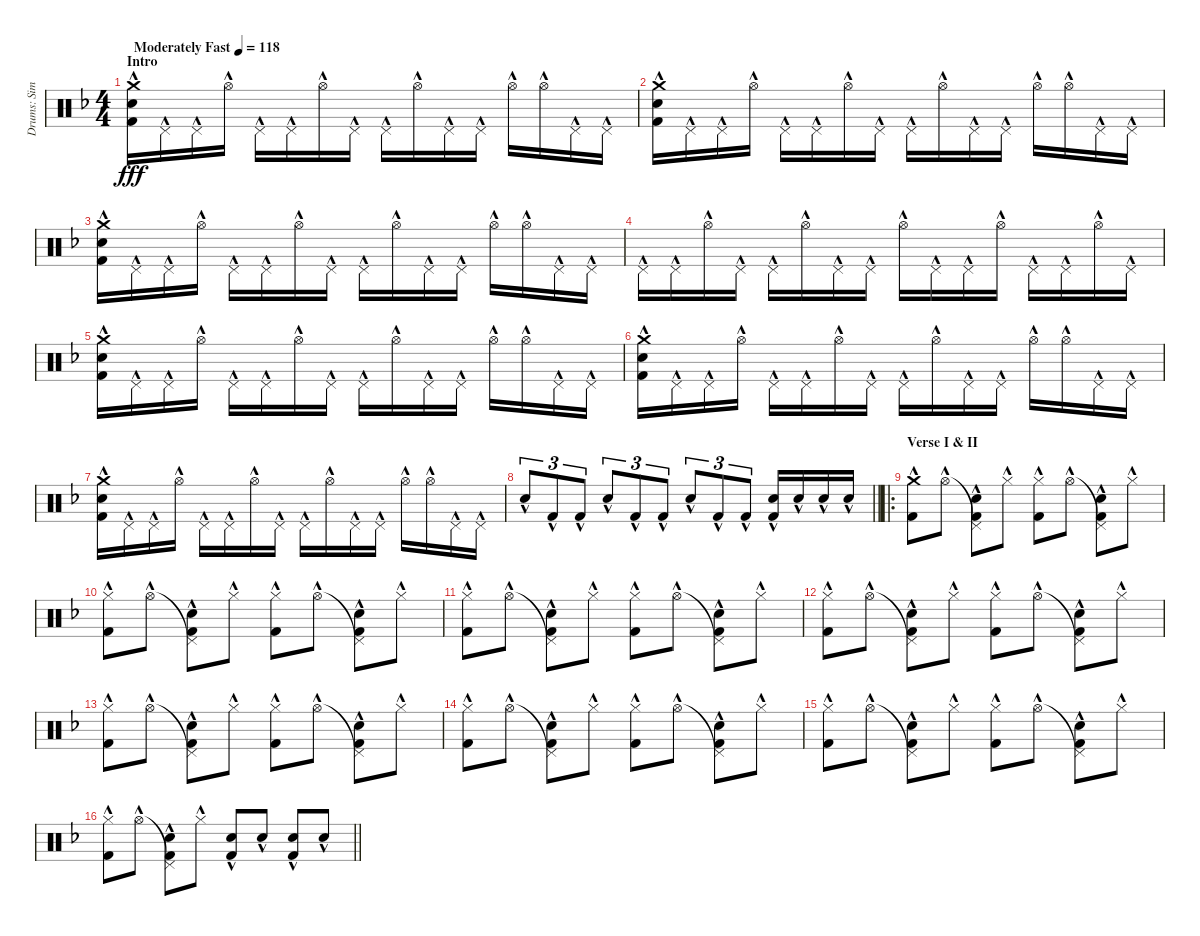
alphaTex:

\track ("Drums: Simon" "Drums: Sim") {instrument percussion}
\staff {score}
\articulation defaults
\ts (4 4)
\section ("" "Intro")
\tempo (118 "Moderately Fast")
\clef neutral
\ks f
("Crash medium (hit)"{hac} "Snare (hit) 2"{hac} "Kick (hit) 2"{hac}).16{dy fff} "Pedal Hi-Hat (hit)"{hac}.16 "Pedal Hi-Hat (hit)"{hac}.16 "Hi-Hat (open)"{hac}.16 "Pedal Hi-Hat (hit)"{hac}.16 "Pedal Hi-Hat (hit)"{hac}.16 "Hi-Hat (open)"{hac}.16 "Pedal Hi-Hat (hit)"{hac}.16 "Pedal Hi-Hat (hit)"{hac}.16 "Hi-Hat (open)"{hac}.16 "Pedal Hi-Hat (hit)"{hac}.16 "Pedal Hi-Hat (hit)"{hac}.16 "Hi-Hat (open)"{hac}.16 "Hi-Hat (open)"{hac}.16 "Pedal Hi-Hat (hit)"{hac}.16 "Pedal Hi-Hat (hit)"{hac}.16 |
("Crash medium (hit)"{hac} "Snare (hit) 2"{hac} "Kick (hit) 2"{hac}).16 "Pedal Hi-Hat (hit)"{hac}.16 "Pedal Hi-Hat (hit)"{hac}.16 "Hi-Hat (open)"{hac}.16 "Pedal Hi-Hat (hit)"{hac}.16 "Pedal Hi-Hat (hit)"{hac}.16 "Hi-Hat (open)"{hac}.16 "Pedal Hi-Hat (hit)"{hac}.16 "Pedal Hi-Hat (hit)"{hac}.16 "Hi-Hat (open)"{hac}.16 "Pedal Hi-Hat (hit)"{hac}.16 "Pedal Hi-Hat (hit)"{hac}.16 "Hi-Hat (open)"{hac}.16 "Hi-Hat (open)"{hac}.16 "Pedal Hi-Hat (hit)"{hac}.16 "Pedal Hi-Hat (hit)"{hac}.16 |
("Crash medium (hit)"{hac} "Snare (hit) 2"{hac} "Kick (hit) 2"{hac}).16 "Pedal Hi-Hat (hit)"{hac}.16 "Pedal Hi-Hat (hit)"{hac}.16 "Hi-Hat (open)"{hac}.16 "Pedal Hi-Hat (hit)"{hac}.16 "Pedal Hi-Hat (hit)"{hac}.16 "Hi-Hat (open)"{hac}.16 "Pedal Hi-Hat (hit)"{hac}.16 "Pedal Hi-Hat (hit)"{hac}.16 "Hi-Hat (open)"{hac}.16 "Pedal Hi-Hat (hit)"{hac}.16 "Pedal Hi-Hat (hit)"{hac}.16 "Hi-Hat (open)"{hac}.16 "Hi-Hat (open)"{hac}.16 "Pedal Hi-Hat (hit)"{hac}.16 "Pedal Hi-Hat (hit)"{hac}.16 |
"Pedal Hi-Hat (hit)"{hac}.16 "Pedal Hi-Hat (hit)"{hac}.16 "Hi-Hat (open)"{hac}.16 "Pedal Hi-Hat (hit)"{hac}.16 "Pedal Hi-Hat (hit)"{hac}.16 "Hi-Hat (open)"{hac}.16 "Pedal Hi-Hat (hit)"{hac}.16 "Pedal Hi-Hat (hit)"{hac}.16 "Hi-Hat (open)"{hac}.16 "Pedal Hi-Hat (hit)"{hac}.16 "Pedal Hi-Hat (hit)"{hac}.16 "Hi-Hat (open)"{hac}.16 "Pedal Hi-Hat (hit)"{hac}.16 "Pedal Hi-Hat (hit)"{hac}.16 "Hi-Hat (open)"{hac}.16 "Pedal Hi-Hat (hit)"{hac}.16 |
("Crash medium (hit)"{hac} "Snare (hit) 2"{hac} "Kick (hit) 2"{hac}).16 "Pedal Hi-Hat (hit)"{hac}.16 "Pedal Hi-Hat (hit)"{hac}.16 "Hi-Hat (open)"{hac}.16 "Pedal Hi-Hat (hit)"{hac}.16 "Pedal Hi-Hat (hit)"{hac}.16 "Hi-Hat (open)"{hac}.16 "Pedal Hi-Hat (hit)"{hac}.16 "Pedal Hi-Hat (hit)"{hac}.16 "Hi-Hat (open)"{hac}.16 "Pedal Hi-Hat (hit)"{hac}.16 "Pedal Hi-Hat (hit)"{hac}.16 "Hi-Hat (open)"{hac}.16 "Hi-Hat (open)"{hac}.16 "Pedal Hi-Hat (hit)"{hac}.16 "Pedal Hi-Hat (hit)"{hac}.16 |
("Crash medium (hit)"{hac} "Snare (hit) 2"{hac} "Kick (hit) 2"{hac}).16 "Pedal Hi-Hat (hit)"{hac}.16 "Pedal Hi-Hat (hit)"{hac}.16 "Hi-Hat (open)"{hac}.16 "Pedal Hi-Hat (hit)"{hac}.16 "Pedal Hi-Hat (hit)"{hac}.16 "Hi-Hat (open)"{hac}.16 "Pedal Hi-Hat (hit)"{hac}.16 "Pedal Hi-Hat (hit)"{hac}.16 "Hi-Hat (open)"{hac}.16 "Pedal Hi-Hat (hit)"{hac}.16 "Pedal Hi-Hat (hit)"{hac}.16 "Hi-Hat (open)"{hac}.16 "Hi-Hat (open)"{hac}.16 "Pedal Hi-Hat (hit)"{hac}.16 "Pedal Hi-Hat (hit)"{hac}.16 |
("Crash medium (hit)"{hac} "Snare (hit) 2"{hac} "Kick (hit) 2"{hac}).16 "Pedal Hi-Hat (hit)"{hac}.16 "Pedal Hi-Hat (hit)"{hac}.16 "Hi-Hat (open)"{hac}.16 "Pedal Hi-Hat (hit)"{hac}.16 "Pedal Hi-Hat (hit)"{hac}.16 "Hi-Hat (open)"{hac}.16 "Pedal Hi-Hat (hit)"{hac}.16 "Pedal Hi-Hat (hit)"{hac}.16 "Hi-Hat (open)"{hac}.16 "Pedal Hi-Hat (hit)"{hac}.16 "Pedal Hi-Hat (hit)"{hac}.16 "Hi-Hat (open)"{hac}.16 "Hi-Hat (open)"{hac}.16 "Pedal Hi-Hat (hit)"{hac}.16 "Pedal Hi-Hat (hit)"{hac}.16 |
\barLineRight lightlight "Electric Snare (hit)"{hac}.8{tu (3 2)} "Kick (hit) 2"{hac}.8{tu (3 2)} "Kick (hit) 2"{hac}.8{tu (3 2)} "Electric Snare (hit)"{hac}.8{tu (3 2)} "Kick (hit) 2"{hac}.8{tu (3 2)} "Kick (hit) 2"{hac}.8{tu (3 2)} "Electric Snare (hit)"{hac}.8{tu (3 2)} "Kick (hit) 2"{hac}.8{tu (3 2)} "Kick (hit) 2"{hac}.8{tu (3 2)}
("Snare (hit) 2"{hac} "Kick (hit) 2"{hac}).16 "Snare (hit) 2"{hac}.16 "Snare (hit) 2"{hac}.16 "Snare (hit) 2"{hac}.16 |
\ro
\section ("" "Verse I & II")
("Crash medium (hit)"{hac} "Kick (hit) 2"{hac}).8 "Hi-Hat (open)"{hac}.8 ("Pedal Hi-Hat (hit)"{t} "Snare (hit) 2"{hac} "Kick (hit) 2"{hac}).8 "Hi-Hat (closed)"{hac}.8 ("Hi-Hat (closed)"{hac} "Kick (hit) 2"{hac}).8 "Hi-Hat (open)"{hac}.8 ("Pedal Hi-Hat (hit)"{t} "Snare (hit) 2"{hac} "Kick (hit) 2"{hac}).8 "Hi-Hat (closed)"{hac}.8 |
("Hi-Hat (closed)"{hac} "Kick (hit) 2"{hac}).8 "Hi-Hat (open)"{hac}.8 ("Pedal Hi-Hat (hit)"{t} "Snare (hit) 2"{hac} "Kick (hit) 2"{hac}).8 "Hi-Hat (closed)"{hac}.8 ("Hi-Hat (closed)"{hac} "Kick (hit) 2"{hac}).8 "Hi-Hat (open)"{hac}.8 ("Pedal Hi-Hat (hit)"{t} "Snare (hit) 2"{hac} "Kick (hit) 2"{hac}).8 "Hi-Hat (closed)"{hac}.8 |
("Hi-Hat (closed)"{hac} "Kick (hit) 2"{hac}).8 "Hi-Hat (open)"{hac}.8 ("Pedal Hi-Hat (hit)"{t} "Snare (hit) 2"{hac} "Kick (hit) 2"{hac}).8 "Hi-Hat (closed)"{hac}.8 ("Hi-Hat (closed)"{hac} "Kick (hit) 2"{hac}).8 "Hi-Hat (open)"{hac}.8 ("Pedal Hi-Hat (hit)"{t} "Snare (hit) 2"{hac} "Kick (hit) 2"{hac}).8 "Hi-Hat (closed)"{hac}.8 |
("Hi-Hat (closed)"{hac} "Kick (hit) 2"{hac}).8 "Hi-Hat (open)"{hac}.8 ("Pedal Hi-Hat (hit)"{t} "Snare (hit) 2"{hac} "Kick (hit) 2"{hac}).8 "Hi-Hat (closed)"{hac}.8 ("Hi-Hat (closed)"{hac} "Kick (hit) 2"{hac}).8 "Hi-Hat (open)"{hac}.8 ("Pedal Hi-Hat (hit)"{t} "Snare (hit) 2"{hac} "Kick (hit) 2"{hac}).8 "Hi-Hat (closed)"{hac}.8 |
("Hi-Hat (closed)"{hac} "Kick (hit) 2"{hac}).8 "Hi-Hat (open)"{hac}.8 ("Pedal Hi-Hat (hit)"{t} "Snare (hit) 2"{hac} "Kick (hit) 2"{hac}).8 "Hi-Hat (closed)"{hac}.8 ("Hi-Hat (closed)"{hac} "Kick (hit) 2"{hac}).8 "Hi-Hat (open)"{hac}.8 ("Pedal Hi-Hat (hit)"{t} "Snare (hit) 2"{hac} "Kick (hit) 2"{hac}).8 "Hi-Hat (closed)"{hac}.8 |
("Hi-Hat (closed)"{hac} "Kick (hit) 2"{hac}).8 "Hi-Hat (open)"{hac}.8 ("Pedal Hi-Hat (hit)"{t} "Snare (hit) 2"{hac} "Kick (hit) 2"{hac}).8 "Hi-Hat (closed)"{hac}.8 ("Hi-Hat (closed)"{hac} "Kick (hit) 2"{hac}).8 "Hi-Hat (open)"{hac}.8 ("Pedal Hi-Hat (hit)"{t} "Snare (hit) 2"{hac} "Kick (hit) 2"{hac}).8 "Hi-Hat (closed)"{hac}.8 |
("Hi-Hat (closed)"{hac} "Kick (hit) 2"{hac}).8 "Hi-Hat (open)"{hac}.8 ("Pedal Hi-Hat (hit)"{t} "Snare (hit) 2"{hac} "Kick (hit) 2"{hac}).8 "Hi-Hat (closed)"{hac}.8 ("Hi-Hat (closed)"{hac} "Kick (hit) 2"{hac}).8 "Hi-Hat (open)"{hac}.8 ("Pedal Hi-Hat (hit)"{t} "Snare (hit) 2"{hac} "Kick (hit) 2"{hac}).8 "Hi-Hat (closed)"{hac}.8 |
\barLineRight lightlight
("Hi-Hat (closed)"{hac} "Kick (hit) 2"{hac}).8 "Hi-Hat (open)"{hac}.8 ("Pedal Hi-Hat (hit)"{t} "Snare (hit) 2"{hac} "Kick (hit) 2"{hac}).8 "Hi-Hat (closed)"{hac}.8 ("Snare (hit) 2"{hac} "Kick (hit) 2"{hac}).8 "Snare (hit) 2"{hac}.8 ("Snare (hit) 2"{hac} "Kick (hit) 2"{hac}).8 "Snare (hit) 2"{hac}.8
